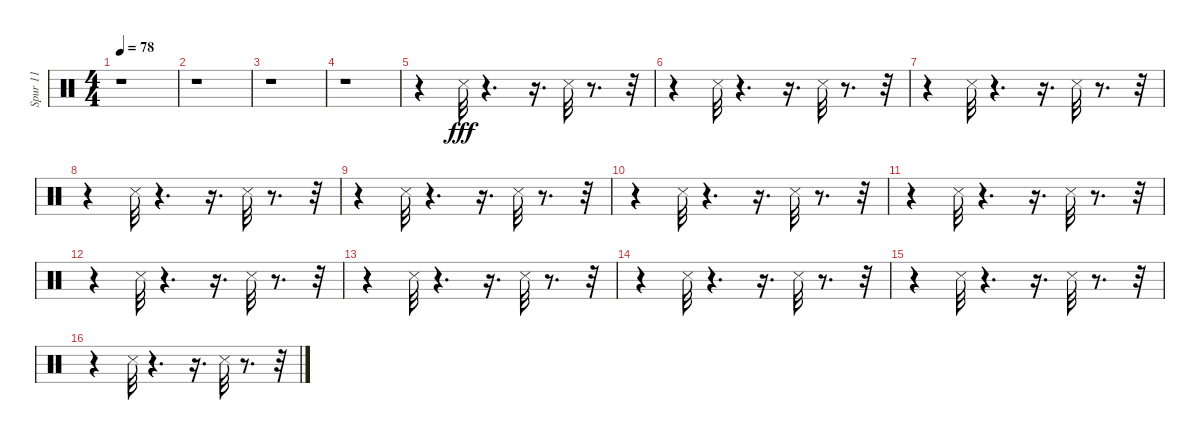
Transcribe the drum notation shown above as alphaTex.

\track ("Spur 11" "Spur 11") {instrument percussion}
\staff {score}
\articulation defaults
\ts (4 4)
\tempo 78
\clef neutral
\ks c
r.1{dy fff} |
r.1 |
r.1 |
r.1 |
r.4 "Snare (side stick) 3".32{volume 16 balance 8} r.4{d} r.16{d} "Snare (side stick) 3".32 r.8{d} r.32 |
r.4 "Snare (side stick) 3".32 r.4{d} r.16{d} "Snare (side stick) 3".32 r.8{d} r.32 |
r.4 "Snare (side stick) 3".32 r.4{d} r.16{d} "Snare (side stick) 3".32 r.8{d} r.32 |
r.4 "Snare (side stick) 3".32 r.4{d} r.16{d} "Snare (side stick) 3".32 r.8{d} r.32 |
r.4 "Snare (side stick) 3".32 r.4{d} r.16{d} "Snare (side stick) 3".32 r.8{d} r.32 |
r.4 "Snare (side stick) 3".32 r.4{d} r.16{d} "Snare (side stick) 3".32 r.8{d} r.32 |
r.4 "Snare (side stick) 3".32 r.4{d} r.16{d} "Snare (side stick) 3".32 r.8{d} r.32 |
r.4 "Snare (side stick) 3".32 r.4{d} r.16{d} "Snare (side stick) 3".32 r.8{d} r.32 |
r.4 "Snare (side stick) 3".32 r.4{d} r.16{d} "Snare (side stick) 3".32 r.8{d} r.32 |
r.4 "Snare (side stick) 3".32 r.4{d} r.16{d} "Snare (side stick) 3".32 r.8{d} r.32 |
r.4 "Snare (side stick) 3".32 r.4{d} r.16{d} "Snare (side stick) 3".32 r.8{d} r.32 |
r.4 "Snare (side stick) 3".32 r.4{d} r.16{d} "Snare (side stick) 3".32 r.8{d} r.32
